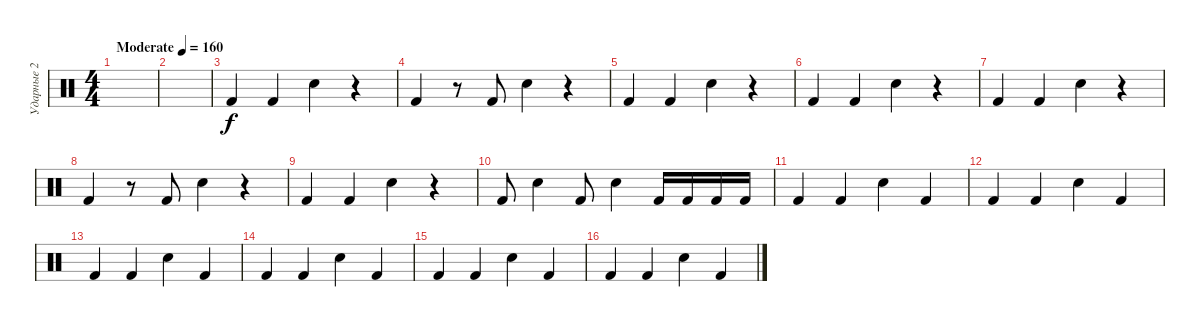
\track ("Ударные 2" "Ударные 2") {instrument percussion}
\staff {score}
\articulation defaults
\ts (4 4)
\tempo (160 "Moderate")
\clef neutral
\ks c
|
|
"Kick (hit) 2".4 "Kick (hit) 2".4 "Hand Clap (hit)".4 r.4 |
"Kick (hit) 2".4 r.8 "Kick (hit) 2".8 "Hand Clap (hit)".4 r.4 |
"Kick (hit) 2".4 "Kick (hit) 2".4 "Hand Clap (hit)".4 r.4 |
"Kick (hit) 2".4 "Kick (hit) 2".4 "Hand Clap (hit)".4 r.4 |
"Kick (hit) 2".4 "Kick (hit) 2".4 "Hand Clap (hit)".4 r.4 |
"Kick (hit) 2".4 r.8 "Kick (hit) 2".8 "Hand Clap (hit)".4 r.4 |
"Kick (hit) 2".4 "Kick (hit) 2".4 "Hand Clap (hit)".4 r.4 |
"Kick (hit) 2".8 "Hand Clap (hit)".4 "Kick (hit) 2".8 "Hand Clap (hit)".4 "Kick (hit) 2".16 "Kick (hit) 2".16 "Kick (hit) 2".16 "Kick (hit) 2".16 |
"Kick (hit) 2".4 "Kick (hit) 2".4 "Hand Clap (hit)".4 "Kick (hit) 2".4 |
"Kick (hit) 2".4 "Kick (hit) 2".4 "Hand Clap (hit)".4 "Kick (hit) 2".4 |
"Kick (hit) 2".4 "Kick (hit) 2".4 "Hand Clap (hit)".4 "Kick (hit) 2".4 |
"Kick (hit) 2".4 "Kick (hit) 2".4 "Hand Clap (hit)".4 "Kick (hit) 2".4 |
"Kick (hit) 2".4 "Kick (hit) 2".4 "Hand Clap (hit)".4 "Kick (hit) 2".4 |
"Kick (hit) 2".4 "Kick (hit) 2".4 "Hand Clap (hit)".4 "Kick (hit) 2".4
